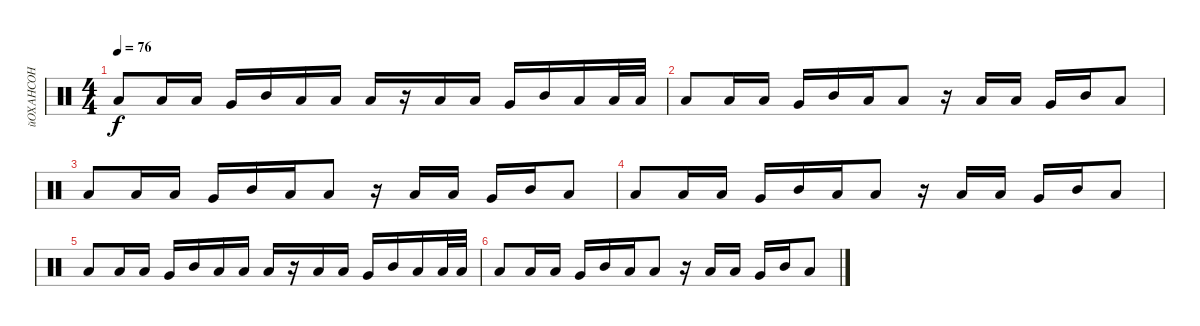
\track ("йОХАНСОН" "йОХАНСОН") {instrument percussion}
\staff {score}
\articulation defaults
\ts (4 4)
\tempo 76
\clef neutral
\ks c "Low Floor Tom (hit)".8{dy f} "Low Floor Tom (hit)".16 "Low Floor Tom (hit)".16 "Very Low Tom (hit)".16 "Mid Tom (hit)".16 "Low Floor Tom (hit)".16 "Low Floor Tom (hit)".16 "Low Floor Tom (hit)".16
r.16 "Low Floor Tom (hit)".16 "Low Floor Tom (hit)".16 "Very Low Tom (hit)".16 "Mid Tom (hit)".16 "Low Floor Tom (hit)".16 "Low Floor Tom (hit)".32 "Low Floor Tom (hit)".32 |
"Low Floor Tom (hit)".8 "Low Floor Tom (hit)".16 "Low Floor Tom (hit)".16 "Very Low Tom (hit)".16 "Mid Tom (hit)".16 "Low Floor Tom (hit)".16 "Low Floor Tom (hit)".8 r.16 "Low Floor Tom (hit)".16 "Low Floor Tom (hit)".16 "Very Low Tom (hit)".16 "Mid Tom (hit)".16 "Low Floor Tom (hit)".8 |
"Low Floor Tom (hit)".8{volume 2} "Low Floor Tom (hit)".16 "Low Floor Tom (hit)".16 "Very Low Tom (hit)".16 "Mid Tom (hit)".16 "Low Floor Tom (hit)".16 "Low Floor Tom (hit)".8 r.16 "Low Floor Tom (hit)".16 "Low Floor Tom (hit)".16 "Very Low Tom (hit)".16 "Mid Tom (hit)".16 "Low Floor Tom (hit)".8 |
"Low Floor Tom (hit)".8 "Low Floor Tom (hit)".16 "Low Floor Tom (hit)".16 "Very Low Tom (hit)".16 "Mid Tom (hit)".16 "Low Floor Tom (hit)".16 "Low Floor Tom (hit)".8 r.16 "Low Floor Tom (hit)".16 "Low Floor Tom (hit)".16 "Very Low Tom (hit)".16 "Mid Tom (hit)".16 "Low Floor Tom (hit)".8 |
"Low Floor Tom (hit)".8 "Low Floor Tom (hit)".16 "Low Floor Tom (hit)".16 "Very Low Tom (hit)".16 "Mid Tom (hit)".16 "Low Floor Tom (hit)".16 "Low Floor Tom (hit)".16 "Low Floor Tom (hit)".16 r.16 "Low Floor Tom (hit)".16 "Low Floor Tom (hit)".16 "Very Low Tom (hit)".16 "Mid Tom (hit)".16 "Low Floor Tom (hit)".16 "Low Floor Tom (hit)".32 "Low Floor Tom (hit)".32 |
"Low Floor Tom (hit)".8 "Low Floor Tom (hit)".16 "Low Floor Tom (hit)".16 "Very Low Tom (hit)".16 "Mid Tom (hit)".16 "Low Floor Tom (hit)".16 "Low Floor Tom (hit)".8 r.16 "Low Floor Tom (hit)".16 "Low Floor Tom (hit)".16 "Very Low Tom (hit)".16 "Mid Tom (hit)".16 "Low Floor Tom (hit)".8
